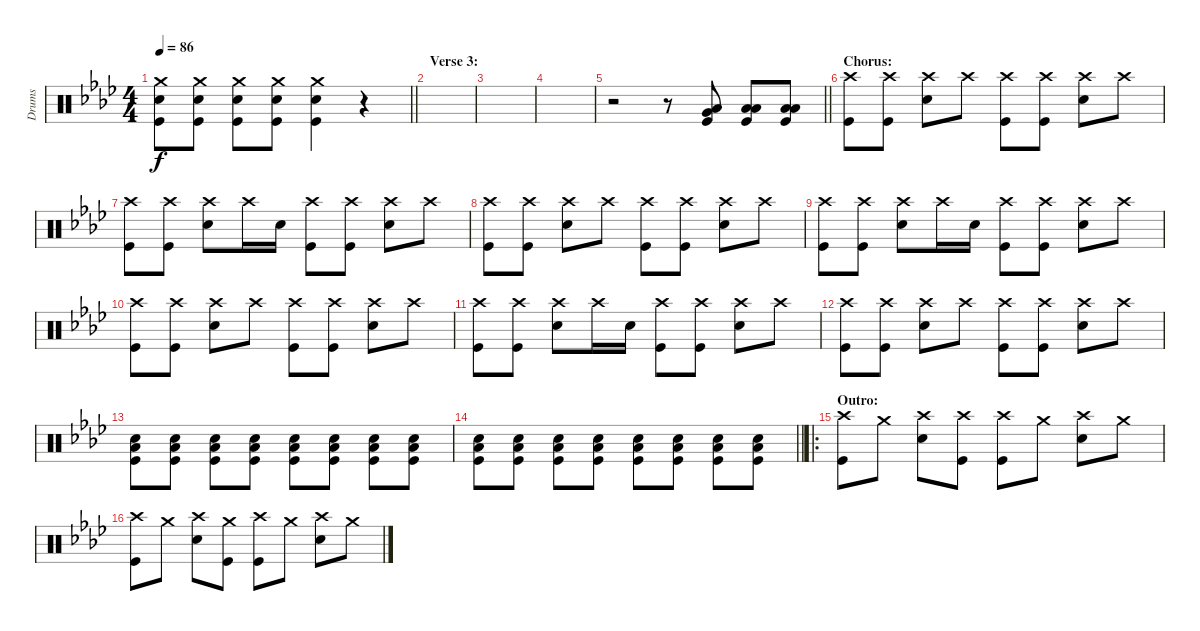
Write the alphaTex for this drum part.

\track ("Drums" "Drums") {instrument percussion}
\staff {score}
\articulation defaults
\ts (4 4)
\tempo 86
\clef neutral
\barLineRight lightlight
\ks ab
("Crash medium (hit)" "Snare (hit) 2" "Kick (hit)").8{dy f} ("Crash medium (hit)" "Kick (hit)" "Snare (hit) 2").8 ("Crash medium (hit)" "Snare (hit) 2" "Kick (hit)").8 ("Crash medium (hit)" "Snare (hit) 2" "Kick (hit)").8 ("Crash medium (hit)" "Snare (hit) 2" "Kick (hit)").4 r.4 |
\section ("" "Verse 3:")
|
|
|
\barLineRight lightlight
r.2 r.8 ("Kick (hit)" "Low Floor Tom (hit)" "Very Low Tom (hit)").8 ("Kick (hit)" "Low Floor Tom (hit)" "Low Tom (hit)").8 ("Kick (hit)" "Low Floor Tom (hit)" "Low Tom (hit)").8 |
\section ("" "Chorus:")
("Crash high (hit)" "Kick (hit)").8 ("Crash high (hit)" "Kick (hit)").8 ("Crash high (hit)" "Snare (hit) 2").8 "Crash high (hit)".8 ("Crash high (hit)" "Kick (hit)").8 ("Crash high (hit)" "Kick (hit)").8 ("Crash high (hit)" "Snare (hit) 2").8 "Crash high (hit)".8 |
("Crash high (hit)" "Kick (hit)").8 ("Crash high (hit)" "Kick (hit)").8 ("Crash high (hit)" "Snare (hit) 2").8 "Crash high (hit)".16 "Snare (hit) 2".16 ("Kick (hit)" "Crash high (hit)").8 ("Kick (hit)" "Crash high (hit)").8 ("Snare (hit) 2" "Crash high (hit)").8 "Crash high (hit)".8 |
("Crash high (hit)" "Kick (hit)").8 ("Crash high (hit)" "Kick (hit)").8 ("Crash high (hit)" "Snare (hit) 2").8 "Crash high (hit)".8 ("Crash high (hit)" "Kick (hit)").8 ("Crash high (hit)" "Kick (hit)").8 ("Crash high (hit)" "Snare (hit) 2").8 "Crash high (hit)".8 |
("Crash high (hit)" "Kick (hit)").8 ("Crash high (hit)" "Kick (hit)").8 ("Crash high (hit)" "Snare (hit) 2").8 "Crash high (hit)".16 "Snare (hit) 2".16 ("Kick (hit)" "Crash high (hit)").8 ("Kick (hit)" "Crash high (hit)").8 ("Snare (hit) 2" "Crash high (hit)").8 "Crash high (hit)".8 |
("Crash high (hit)" "Kick (hit)").8 ("Crash high (hit)" "Kick (hit)").8 ("Crash high (hit)" "Snare (hit) 2").8 "Crash high (hit)".8 ("Crash high (hit)" "Kick (hit)").8 ("Crash high (hit)" "Kick (hit)").8 ("Crash high (hit)" "Snare (hit) 2").8 "Crash high (hit)".8 |
("Crash high (hit)" "Kick (hit)").8 ("Crash high (hit)" "Kick (hit)").8 ("Crash high (hit)" "Snare (hit) 2").8 "Crash high (hit)".16 "Snare (hit) 2".16 ("Kick (hit)" "Crash high (hit)").8 ("Kick (hit)" "Crash high (hit)").8 ("Snare (hit) 2" "Crash high (hit)").8 "Crash high (hit)".8 |
("Crash high (hit)" "Kick (hit)").8 ("Crash high (hit)" "Kick (hit)").8 ("Crash high (hit)" "Snare (hit) 2").8 "Crash high (hit)".8 ("Crash high (hit)" "Kick (hit)").8 ("Crash high (hit)" "Kick (hit)").8 ("Crash high (hit)" "Snare (hit) 2").8 "Crash high (hit)".8 |
("Kick (hit)" "Low Floor Tom (hit)" "Snare (hit) 2").8 ("Kick (hit)" "Low Floor Tom (hit)" "Snare (hit) 2").8 ("Kick (hit)" "Low Floor Tom (hit)" "Snare (hit) 2").8 ("Kick (hit)" "Low Floor Tom (hit)" "Snare (hit) 2").8 ("Kick (hit)" "Low Floor Tom (hit)" "Snare (hit) 2").8 ("Kick (hit)" "Low Floor Tom (hit)" "Snare (hit) 2").8 ("Kick (hit)" "Low Floor Tom (hit)" "Snare (hit) 2").8 ("Kick (hit)" "Low Floor Tom (hit)" "Snare (hit) 2").8 |
\barLineRight lightlight
("Kick (hit)" "Low Floor Tom (hit)" "Snare (hit) 2").8 ("Kick (hit)" "Low Floor Tom (hit)" "Snare (hit) 2").8 ("Kick (hit)" "Low Floor Tom (hit)" "Snare (hit) 2").8 ("Kick (hit)" "Low Floor Tom (hit)" "Snare (hit) 2").8 ("Kick (hit)" "Low Floor Tom (hit)" "Snare (hit) 2").8 ("Kick (hit)" "Low Floor Tom (hit)" "Snare (hit) 2").8 ("Kick (hit)" "Low Floor Tom (hit)" "Snare (hit) 2").8 ("Kick (hit)" "Low Floor Tom (hit)" "Snare (hit) 2").8 |
\ro
\section ("" "Outro:")
("Crash high (hit)" "Kick (hit)").8 "Crash medium (hit)".8 ("Crash high (hit)" "Snare (hit) 2").8 ("Crash high (hit)" "Kick (hit)").8 ("Crash high (hit)" "Kick (hit)").8 "Crash medium (hit)".8 ("Crash high (hit)" "Snare (hit) 2").8 "Crash medium (hit)".8 |
("Crash high (hit)" "Kick (hit)").8 "Crash medium (hit)".8 ("Crash high (hit)" "Snare (hit) 2").8 ("Crash medium (hit)" "Kick (hit)").8 ("Crash high (hit)" "Kick (hit)").8 "Crash medium (hit)".8 ("Crash high (hit)" "Snare (hit) 2").8 "Crash medium (hit)".8
